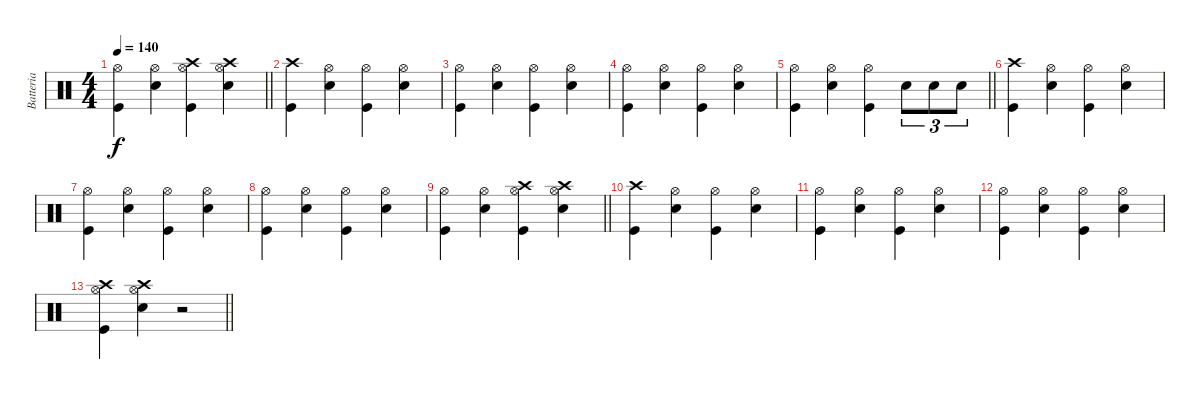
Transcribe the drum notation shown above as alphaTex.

\track ("Batteria" "Batteria") {instrument percussion}
\staff {score}
\articulation defaults
\ts (4 4)
\tempo 140
\clef neutral
\barLineRight lightlight
\ks c
("Hi-Hat (open)" "Kick (hit)").4{dy f} ("Snare (hit) 2" "Hi-Hat (open)").4 ("Hi-Hat (open)" "Kick (hit)" "Crash high (hit)").4 ("Snare (hit) 2" "Hi-Hat (open)" "Crash high (hit)").4 |
("Crash high (hit)" "Kick (hit)").4 ("Snare (hit) 2" "Hi-Hat (open)").4 ("Hi-Hat (open)" "Kick (hit)").4 ("Hi-Hat (open)" "Snare (hit) 2").4 |
("Hi-Hat (open)" "Kick (hit)").4 ("Snare (hit) 2" "Hi-Hat (open)").4 ("Hi-Hat (open)" "Kick (hit)").4 ("Snare (hit) 2" "Hi-Hat (open)").4 |
("Hi-Hat (open)" "Kick (hit)").4 ("Snare (hit) 2" "Hi-Hat (open)").4 ("Hi-Hat (open)" "Kick (hit)").4 ("Snare (hit) 2" "Hi-Hat (open)").4 |
\barLineRight lightlight
("Hi-Hat (open)" "Kick (hit)").4 ("Snare (hit) 2" "Hi-Hat (open)").4 ("Hi-Hat (open)" "Kick (hit)").4 "Snare (hit) 2".8{tu (3 2)} "Snare (hit) 2".8{tu (3 2)} "Snare (hit) 2".8{tu (3 2)} |
("Crash high (hit)" "Kick (hit)").4 ("Snare (hit) 2" "Hi-Hat (open)").4 ("Hi-Hat (open)" "Kick (hit)").4 ("Hi-Hat (open)" "Snare (hit) 2").4 |
("Hi-Hat (open)" "Kick (hit)").4 ("Snare (hit) 2" "Hi-Hat (open)").4 ("Hi-Hat (open)" "Kick (hit)").4 ("Snare (hit) 2" "Hi-Hat (open)").4 |
("Hi-Hat (open)" "Kick (hit)").4 ("Snare (hit) 2" "Hi-Hat (open)").4 ("Hi-Hat (open)" "Kick (hit)").4 ("Snare (hit) 2" "Hi-Hat (open)").4 |
\barLineRight lightlight
("Hi-Hat (open)" "Kick (hit)").4 ("Snare (hit) 2" "Hi-Hat (open)").4 ("Hi-Hat (open)" "Kick (hit)" "Crash high (hit)").4 ("Snare (hit) 2" "Hi-Hat (open)" "Crash high (hit)").4 |
("Crash high (hit)" "Kick (hit)").4 ("Snare (hit) 2" "Hi-Hat (open)").4 ("Hi-Hat (open)" "Kick (hit)").4 ("Hi-Hat (open)" "Snare (hit) 2").4 |
("Hi-Hat (open)" "Kick (hit)").4 ("Snare (hit) 2" "Hi-Hat (open)").4 ("Hi-Hat (open)" "Kick (hit)").4 ("Snare (hit) 2" "Hi-Hat (open)").4 |
("Hi-Hat (open)" "Kick (hit)").4 ("Snare (hit) 2" "Hi-Hat (open)").4 ("Hi-Hat (open)" "Kick (hit)").4 ("Snare (hit) 2" "Hi-Hat (open)").4 |
\barLineRight lightlight
("Hi-Hat (open)" "Kick (hit)" "Crash high (hit)").4 ("Snare (hit) 2" "Hi-Hat (open)" "Crash high (hit)").4 r.2
